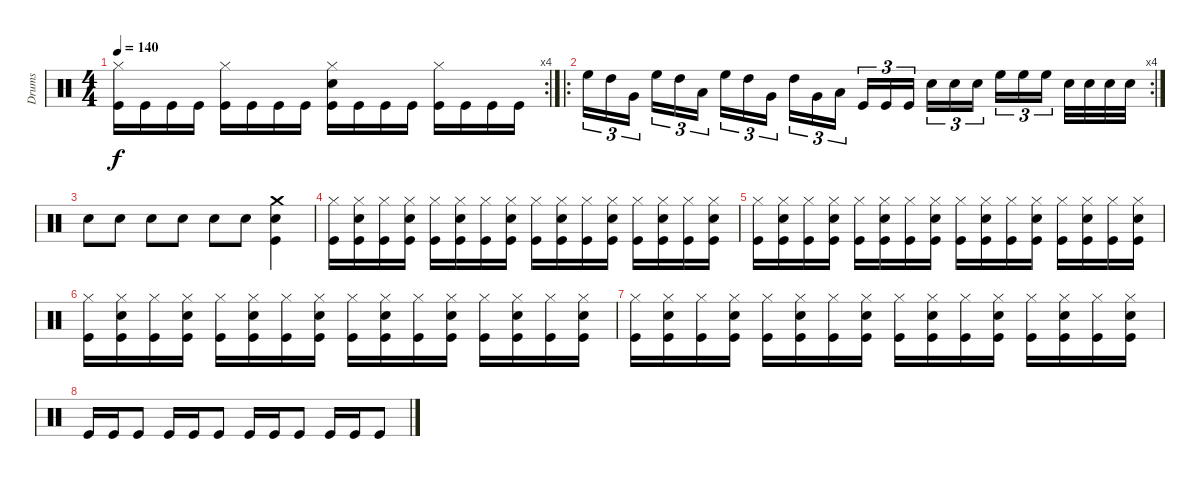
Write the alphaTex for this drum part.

\track ("Drums" "Drums") {instrument percussion}
\staff {score}
\articulation defaults
\rc 4
\ts (4 4)
\tempo 140
\clef neutral
\ks c
("Hi-Hat (closed)" "Kick (hit)").16{dy f} "Kick (hit)".16 "Kick (hit)".16 "Kick (hit)".16 ("Hi-Hat (closed)" "Kick (hit)").16 "Kick (hit)".16 "Kick (hit)".16 "Kick (hit)".16 ("Hi-Hat (closed)" "Snare (hit) 2" "Kick (hit)").16 "Kick (hit)".16 "Kick (hit)".16 "Kick (hit)".16 ("Hi-Hat (closed)" "Kick (hit)").16 "Kick (hit)".16 "Kick (hit)".16 "Kick (hit)".16 |
\ro
\rc 4 "High Floor Tom (hit)".16{tu (3 2)} "High Tom (hit)".16{tu (3 2)} "Very Low Tom (hit)".16{tu (3 2)} "High Floor Tom (hit)".16{tu (3 2)} "High Tom (hit)".16{tu (3 2)} "Low Floor Tom (hit)".16{tu (3 2)} "High Floor Tom (hit)".16{tu (3 2)} "High Tom (hit)".16{tu (3 2)} "Very Low Tom (hit)".16{tu (3 2)} "High Tom (hit)".16{tu (3 2)} "Very Low Tom (hit)".16{tu (3 2)} "Low Floor Tom (hit)".16{tu (3 2)} "Kick (hit)".16{tu (3 2)} "Kick (hit)".16{tu (3 2)} "Kick (hit)".16{tu (3 2)} "Snare (hit) 2".16{tu (3 2)} "Snare (hit) 2".16{tu (3 2)} "Snare (hit) 2".16{tu (3 2)} "High Floor Tom (hit)".16{tu (3 2)} "High Floor Tom (hit)".16{tu (3 2)} "High Floor Tom (hit)".16{tu (3 2)} "Snare (hit) 2".32 "Snare (hit) 2".32 "Snare (hit) 2".32 "Snare (hit) 2".32
|
"Snare (hit) 2".8 "Snare (hit) 2".8 "Snare (hit) 2".8 "Snare (hit) 2".8 "Snare (hit) 2".8 "Snare (hit) 2".8 ("Crash medium (hit)" "Snare (hit) 2" "Kick (hit)").4 |
("Hi-Hat (closed)" "Kick (hit)").16 ("Hi-Hat (closed)" "Snare (hit) 2" "Kick (hit)").16 ("Hi-Hat (closed)" "Kick (hit)").16 ("Hi-Hat (closed)" "Snare (hit) 2" "Kick (hit)").16 ("Hi-Hat (closed)" "Kick (hit)").16 ("Hi-Hat (closed)" "Snare (hit) 2" "Kick (hit)").16 ("Hi-Hat (closed)" "Kick (hit)").16 ("Hi-Hat (closed)" "Snare (hit) 2" "Kick (hit)").16 ("Hi-Hat (closed)" "Kick (hit)").16 ("Hi-Hat (closed)" "Snare (hit) 2" "Kick (hit)").16 ("Hi-Hat (closed)" "Kick (hit)").16 ("Hi-Hat (closed)" "Snare (hit) 2" "Kick (hit)").16 ("Hi-Hat (closed)" "Kick (hit)").16 ("Hi-Hat (closed)" "Snare (hit) 2" "Kick (hit)").16 ("Hi-Hat (closed)" "Kick (hit)").16 ("Hi-Hat (closed)" "Snare (hit) 2" "Kick (hit)").16 |
("Hi-Hat (closed)" "Kick (hit)").16 ("Hi-Hat (closed)" "Snare (hit) 2" "Kick (hit)").16 ("Hi-Hat (closed)" "Kick (hit)").16 ("Hi-Hat (closed)" "Snare (hit) 2" "Kick (hit)").16 ("Hi-Hat (closed)" "Kick (hit)").16 ("Hi-Hat (closed)" "Snare (hit) 2" "Kick (hit)").16 ("Hi-Hat (closed)" "Kick (hit)").16 ("Hi-Hat (closed)" "Snare (hit) 2" "Kick (hit)").16 ("Hi-Hat (closed)" "Kick (hit)").16 ("Hi-Hat (closed)" "Snare (hit) 2" "Kick (hit)").16 ("Hi-Hat (closed)" "Kick (hit)").16 ("Hi-Hat (closed)" "Snare (hit) 2" "Kick (hit)").16 ("Hi-Hat (closed)" "Kick (hit)").16 ("Hi-Hat (closed)" "Snare (hit) 2" "Kick (hit)").16 ("Hi-Hat (closed)" "Kick (hit)").16 ("Hi-Hat (closed)" "Snare (hit) 2" "Kick (hit)").16 |
("Hi-Hat (closed)" "Kick (hit)").16 ("Hi-Hat (closed)" "Snare (hit) 2" "Kick (hit)").16 ("Hi-Hat (closed)" "Kick (hit)").16 ("Hi-Hat (closed)" "Snare (hit) 2" "Kick (hit)").16 ("Hi-Hat (closed)" "Kick (hit)").16 ("Hi-Hat (closed)" "Snare (hit) 2" "Kick (hit)").16 ("Hi-Hat (closed)" "Kick (hit)").16 ("Hi-Hat (closed)" "Snare (hit) 2" "Kick (hit)").16 ("Hi-Hat (closed)" "Kick (hit)").16 ("Hi-Hat (closed)" "Snare (hit) 2" "Kick (hit)").16 ("Hi-Hat (closed)" "Kick (hit)").16 ("Hi-Hat (closed)" "Snare (hit) 2" "Kick (hit)").16 ("Hi-Hat (closed)" "Kick (hit)").16 ("Hi-Hat (closed)" "Snare (hit) 2" "Kick (hit)").16 ("Hi-Hat (closed)" "Kick (hit)").16 ("Hi-Hat (closed)" "Snare (hit) 2" "Kick (hit)").16 |
("Hi-Hat (closed)" "Kick (hit)").16 ("Hi-Hat (closed)" "Snare (hit) 2" "Kick (hit)").16 ("Hi-Hat (closed)" "Kick (hit)").16 ("Hi-Hat (closed)" "Snare (hit) 2" "Kick (hit)").16 ("Hi-Hat (closed)" "Kick (hit)").16 ("Hi-Hat (closed)" "Snare (hit) 2" "Kick (hit)").16 ("Hi-Hat (closed)" "Kick (hit)").16 ("Hi-Hat (closed)" "Snare (hit) 2" "Kick (hit)").16 ("Hi-Hat (closed)" "Kick (hit)").16 ("Hi-Hat (closed)" "Snare (hit) 2" "Kick (hit)").16 ("Hi-Hat (closed)" "Kick (hit)").16 ("Hi-Hat (closed)" "Snare (hit) 2" "Kick (hit)").16 ("Hi-Hat (closed)" "Kick (hit)").16 ("Hi-Hat (closed)" "Snare (hit) 2" "Kick (hit)").16 ("Hi-Hat (closed)" "Kick (hit)").16 ("Hi-Hat (closed)" "Snare (hit) 2" "Kick (hit)").16 |
"Kick (hit)".16 "Kick (hit)".16 "Kick (hit)".8 "Kick (hit)".16 "Kick (hit)".16 "Kick (hit)".8 "Kick (hit)".16 "Kick (hit)".16 "Kick (hit)".8 "Kick (hit)".16 "Kick (hit)".16 "Kick (hit)".8
